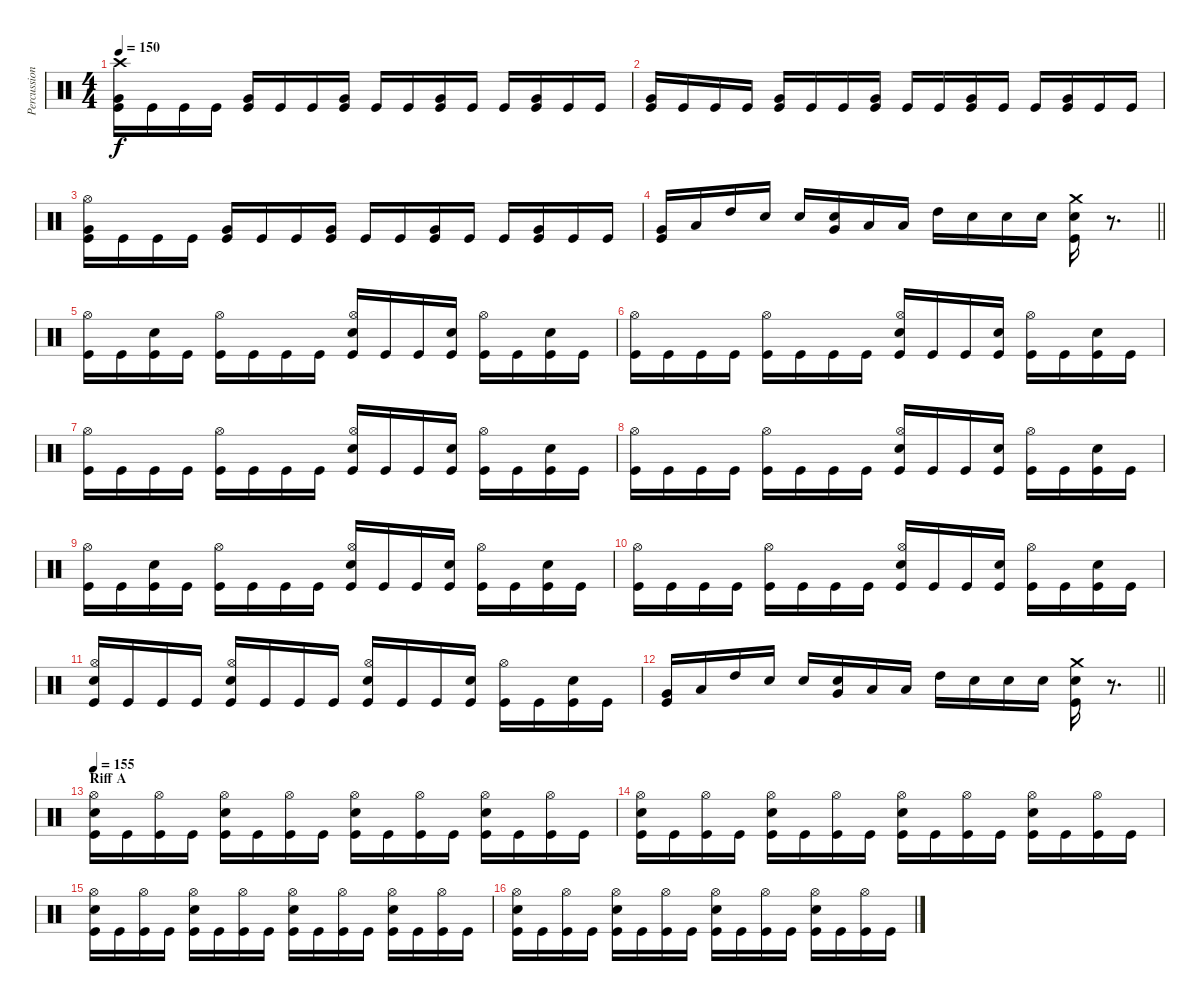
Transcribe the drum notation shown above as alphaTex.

\track ("Percussion" "Percussion") {instrument percussion}
\staff {score}
\articulation defaults
\ts (4 4)
\tempo 150
\clef neutral
\ks c
("Crash high (hit)" "Very Low Tom (hit)" "Kick (hit)").16{dy f} "Kick (hit)".16 "Kick (hit)".16 "Kick (hit)".16 ("Very Low Tom (hit)" "Kick (hit)").16 "Kick (hit)".16 "Kick (hit)".16 ("Very Low Tom (hit)" "Kick (hit)").16 "Kick (hit)".16 "Kick (hit)".16 ("Very Low Tom (hit)" "Kick (hit)").16 "Kick (hit)".16 "Kick (hit)".16 ("Very Low Tom (hit)" "Kick (hit)").16 "Kick (hit)".16 "Kick (hit)".16 |
("Very Low Tom (hit)" "Kick (hit)").16 "Kick (hit)".16 "Kick (hit)".16 "Kick (hit)".16 ("Very Low Tom (hit)" "Kick (hit)").16 "Kick (hit)".16 "Kick (hit)".16 ("Very Low Tom (hit)" "Kick (hit)").16 "Kick (hit)".16 "Kick (hit)".16 ("Very Low Tom (hit)" "Kick (hit)").16 "Kick (hit)".16 "Kick (hit)".16 ("Very Low Tom (hit)" "Kick (hit)").16 "Kick (hit)".16 "Kick (hit)".16 |
("Hi-Hat (open)" "Very Low Tom (hit)" "Kick (hit)").16 "Kick (hit)".16 "Kick (hit)".16 "Kick (hit)".16 ("Very Low Tom (hit)" "Kick (hit)").16 "Kick (hit)".16 "Kick (hit)".16 ("Very Low Tom (hit)" "Kick (hit)").16 "Kick (hit)".16 "Kick (hit)".16 ("Very Low Tom (hit)" "Kick (hit)").16 "Kick (hit)".16 "Kick (hit)".16 ("Very Low Tom (hit)" "Kick (hit)").16 "Kick (hit)".16 "Kick (hit)".16 |
\barLineRight lightlight
("Very Low Tom (hit)" "Kick (hit)").16 "Low Tom (hit)".16 "High Tom (hit)".16 "Snare (hit) 2".16 "Snare (hit) 2".16 ("Very Low Tom (hit)" "Snare (hit) 2").16 "Low Tom (hit)".16 "Low Tom (hit)".16 "High Tom (hit)".16 "Snare (hit) 2".16 "Snare (hit) 2".16 "Snare (hit) 2".16 ("Crash medium (hit)" "Snare (hit) 2" "Kick (hit)").16 r.8{d} |
("Hi-Hat (open)" "Kick (hit)").16 "Kick (hit)".16 ("Snare (hit) 2" "Kick (hit)").16 "Kick (hit)".16 ("Hi-Hat (open)" "Kick (hit)").16 "Kick (hit)".16 "Kick (hit)".16 "Kick (hit)".16 ("Hi-Hat (open)" "Snare (hit) 2" "Kick (hit)").16 "Kick (hit)".16 "Kick (hit)".16 ("Snare (hit) 2" "Kick (hit)").16 ("Hi-Hat (open)" "Kick (hit)").16 "Kick (hit)".16 ("Snare (hit) 2" "Kick (hit)").16 "Kick (hit)".16 |
("Hi-Hat (open)" "Kick (hit)").16 "Kick (hit)".16 "Kick (hit)".16 "Kick (hit)".16 ("Hi-Hat (open)" "Kick (hit)").16 "Kick (hit)".16 "Kick (hit)".16 "Kick (hit)".16 ("Hi-Hat (open)" "Snare (hit) 2" "Kick (hit)").16 "Kick (hit)".16 "Kick (hit)".16 ("Snare (hit) 2" "Kick (hit)").16 ("Hi-Hat (open)" "Kick (hit)").16 "Kick (hit)".16 ("Snare (hit) 2" "Kick (hit)").16 "Kick (hit)".16 |
("Hi-Hat (open)" "Kick (hit)").16 "Kick (hit)".16 "Kick (hit)".16 "Kick (hit)".16 ("Hi-Hat (open)" "Kick (hit)").16 "Kick (hit)".16 "Kick (hit)".16 "Kick (hit)".16 ("Hi-Hat (open)" "Snare (hit) 2" "Kick (hit)").16 "Kick (hit)".16 "Kick (hit)".16 ("Snare (hit) 2" "Kick (hit)").16 ("Hi-Hat (open)" "Kick (hit)").16 "Kick (hit)".16 ("Snare (hit) 2" "Kick (hit)").16 "Kick (hit)".16 |
("Hi-Hat (open)" "Kick (hit)").16 "Kick (hit)".16 "Kick (hit)".16 "Kick (hit)".16 ("Hi-Hat (open)" "Kick (hit)").16 "Kick (hit)".16 "Kick (hit)".16 "Kick (hit)".16 ("Hi-Hat (open)" "Snare (hit) 2" "Kick (hit)").16 "Kick (hit)".16 "Kick (hit)".16 ("Snare (hit) 2" "Kick (hit)").16 ("Hi-Hat (open)" "Kick (hit)").16 "Kick (hit)".16 ("Snare (hit) 2" "Kick (hit)").16 "Kick (hit)".16 |
("Hi-Hat (open)" "Kick (hit)").16 "Kick (hit)".16 ("Snare (hit) 2" "Kick (hit)").16 "Kick (hit)".16 ("Hi-Hat (open)" "Kick (hit)").16 "Kick (hit)".16 "Kick (hit)".16 "Kick (hit)".16 ("Hi-Hat (open)" "Snare (hit) 2" "Kick (hit)").16 "Kick (hit)".16 "Kick (hit)".16 ("Snare (hit) 2" "Kick (hit)").16 ("Hi-Hat (open)" "Kick (hit)").16 "Kick (hit)".16 ("Snare (hit) 2" "Kick (hit)").16 "Kick (hit)".16 |
("Hi-Hat (open)" "Kick (hit)").16 "Kick (hit)".16 "Kick (hit)".16 "Kick (hit)".16 ("Hi-Hat (open)" "Kick (hit)").16 "Kick (hit)".16 "Kick (hit)".16 "Kick (hit)".16 ("Hi-Hat (open)" "Snare (hit) 2" "Kick (hit)").16 "Kick (hit)".16 "Kick (hit)".16 ("Snare (hit) 2" "Kick (hit)").16 ("Hi-Hat (open)" "Kick (hit)").16 "Kick (hit)".16 ("Snare (hit) 2" "Kick (hit)").16 "Kick (hit)".16 |
("Hi-Hat (open)" "Snare (hit) 2" "Kick (hit)").16 "Kick (hit)".16 "Kick (hit)".16 "Kick (hit)".16 ("Hi-Hat (open)" "Snare (hit) 2" "Kick (hit)").16 "Kick (hit)".16 "Kick (hit)".16 "Kick (hit)".16 ("Hi-Hat (open)" "Snare (hit) 2" "Kick (hit)").16 "Kick (hit)".16 "Kick (hit)".16 ("Snare (hit) 2" "Kick (hit)").16 ("Hi-Hat (open)" "Kick (hit)").16 "Kick (hit)".16 ("Snare (hit) 2" "Kick (hit)").16 "Kick (hit)".16 |
\barLineRight lightlight
("Very Low Tom (hit)" "Kick (hit)").16 "Low Tom (hit)".16 "High Tom (hit)".16 "Snare (hit) 2".16 "Snare (hit) 2".16 ("Very Low Tom (hit)" "Snare (hit) 2").16 "Low Tom (hit)".16 "Low Tom (hit)".16 "High Tom (hit)".16 "Snare (hit) 2".16 "Snare (hit) 2".16 "Snare (hit) 2".16 ("Crash medium (hit)" "Snare (hit) 2" "Kick (hit)").16 r.8{d} |
\section ("" "Riff A")
\tempo 155
("Hi-Hat (open)" "Snare (hit) 2" "Kick (hit)").16 "Kick (hit)".16 ("Hi-Hat (open)" "Kick (hit)").16 "Kick (hit)".16 ("Hi-Hat (open)" "Snare (hit) 2" "Kick (hit)").16 "Kick (hit)".16 ("Hi-Hat (open)" "Kick (hit)").16 "Kick (hit)".16 ("Hi-Hat (open)" "Snare (hit) 2" "Kick (hit)").16 "Kick (hit)".16 ("Hi-Hat (open)" "Kick (hit)").16 "Kick (hit)".16 ("Hi-Hat (open)" "Snare (hit) 2" "Kick (hit)").16 "Kick (hit)".16 ("Hi-Hat (open)" "Kick (hit)").16 "Kick (hit)".16 |
("Hi-Hat (open)" "Snare (hit) 2" "Kick (hit)").16 "Kick (hit)".16 ("Hi-Hat (open)" "Kick (hit)").16 "Kick (hit)".16 ("Hi-Hat (open)" "Snare (hit) 2" "Kick (hit)").16 "Kick (hit)".16 ("Hi-Hat (open)" "Kick (hit)").16 "Kick (hit)".16 ("Hi-Hat (open)" "Snare (hit) 2" "Kick (hit)").16 "Kick (hit)".16 ("Hi-Hat (open)" "Kick (hit)").16 "Kick (hit)".16 ("Hi-Hat (open)" "Snare (hit) 2" "Kick (hit)").16 "Kick (hit)".16 ("Hi-Hat (open)" "Kick (hit)").16 "Kick (hit)".16 |
("Hi-Hat (open)" "Snare (hit) 2" "Kick (hit)").16 "Kick (hit)".16 ("Hi-Hat (open)" "Kick (hit)").16 "Kick (hit)".16 ("Hi-Hat (open)" "Snare (hit) 2" "Kick (hit)").16 "Kick (hit)".16 ("Hi-Hat (open)" "Kick (hit)").16 "Kick (hit)".16 ("Hi-Hat (open)" "Snare (hit) 2" "Kick (hit)").16 "Kick (hit)".16 ("Hi-Hat (open)" "Kick (hit)").16 "Kick (hit)".16 ("Hi-Hat (open)" "Snare (hit) 2" "Kick (hit)").16 "Kick (hit)".16 ("Hi-Hat (open)" "Kick (hit)").16 "Kick (hit)".16 |
("Hi-Hat (open)" "Snare (hit) 2" "Kick (hit)").16 "Kick (hit)".16 ("Hi-Hat (open)" "Kick (hit)").16 "Kick (hit)".16 ("Hi-Hat (open)" "Snare (hit) 2" "Kick (hit)").16 "Kick (hit)".16 ("Hi-Hat (open)" "Kick (hit)").16 "Kick (hit)".16 ("Hi-Hat (open)" "Snare (hit) 2" "Kick (hit)").16 "Kick (hit)".16 ("Hi-Hat (open)" "Kick (hit)").16 "Kick (hit)".16 ("Hi-Hat (open)" "Snare (hit) 2" "Kick (hit)").16 "Kick (hit)".16 ("Hi-Hat (open)" "Kick (hit)").16 "Kick (hit)".16
